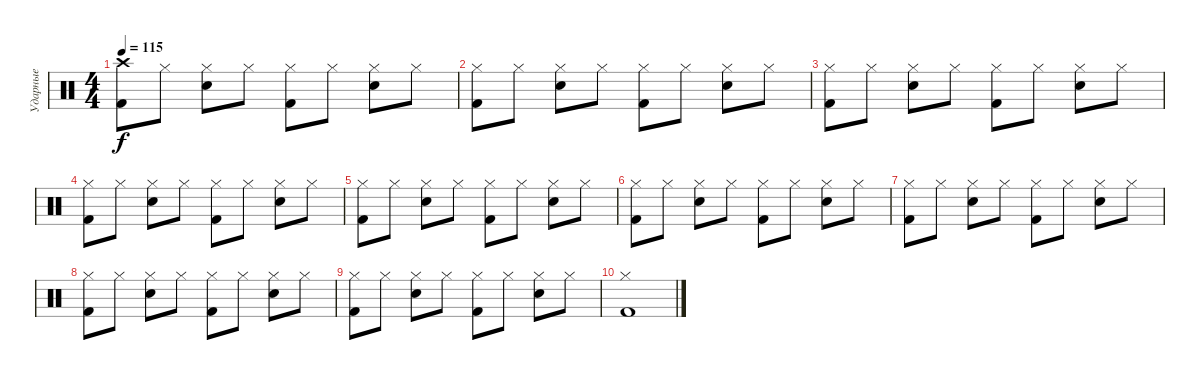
\track ("Ударные" "Ударные") {instrument percussion}
\staff {score}
\articulation defaults
\ts (4 4)
\tempo 115
\clef neutral
\ks c
("Crash high (hit)" "Kick (hit) 2").8{dy f} "Hi-Hat (closed)".8 ("Hi-Hat (closed)" "Snare (hit) 2").8 "Hi-Hat (closed)".8 ("Hi-Hat (closed)" "Kick (hit) 2").8 "Hi-Hat (closed)".8 ("Hi-Hat (closed)" "Snare (hit) 2").8 "Hi-Hat (closed)".8 |
("Hi-Hat (closed)" "Kick (hit) 2").8 "Hi-Hat (closed)".8 ("Hi-Hat (closed)" "Snare (hit) 2").8 "Hi-Hat (closed)".8 ("Hi-Hat (closed)" "Kick (hit) 2").8 "Hi-Hat (closed)".8 ("Hi-Hat (closed)" "Snare (hit) 2").8 "Hi-Hat (closed)".8 |
("Hi-Hat (closed)" "Kick (hit) 2").8 "Hi-Hat (closed)".8 ("Hi-Hat (closed)" "Snare (hit) 2").8 "Hi-Hat (closed)".8 ("Hi-Hat (closed)" "Kick (hit) 2").8 "Hi-Hat (closed)".8 ("Hi-Hat (closed)" "Snare (hit) 2").8 "Hi-Hat (closed)".8 |
("Hi-Hat (closed)" "Kick (hit) 2").8 "Hi-Hat (closed)".8 ("Hi-Hat (closed)" "Snare (hit) 2").8 "Hi-Hat (closed)".8 ("Hi-Hat (closed)" "Kick (hit) 2").8 "Hi-Hat (closed)".8 ("Hi-Hat (closed)" "Snare (hit) 2").8 "Hi-Hat (closed)".8 |
("Hi-Hat (closed)" "Kick (hit) 2").8 "Hi-Hat (closed)".8 ("Hi-Hat (closed)" "Snare (hit) 2").8 "Hi-Hat (closed)".8 ("Hi-Hat (closed)" "Kick (hit) 2").8 "Hi-Hat (closed)".8 ("Hi-Hat (closed)" "Snare (hit) 2").8 "Hi-Hat (closed)".8 |
("Hi-Hat (closed)" "Kick (hit) 2").8 "Hi-Hat (closed)".8 ("Hi-Hat (closed)" "Snare (hit) 2").8 "Hi-Hat (closed)".8 ("Hi-Hat (closed)" "Kick (hit) 2").8 "Hi-Hat (closed)".8 ("Hi-Hat (closed)" "Snare (hit) 2").8 "Hi-Hat (closed)".8 |
("Hi-Hat (closed)" "Kick (hit) 2").8 "Hi-Hat (closed)".8 ("Hi-Hat (closed)" "Snare (hit) 2").8 "Hi-Hat (closed)".8 ("Hi-Hat (closed)" "Kick (hit) 2").8 "Hi-Hat (closed)".8 ("Hi-Hat (closed)" "Snare (hit) 2").8 "Hi-Hat (closed)".8 |
("Hi-Hat (closed)" "Kick (hit) 2").8 "Hi-Hat (closed)".8 ("Hi-Hat (closed)" "Snare (hit) 2").8 "Hi-Hat (closed)".8 ("Hi-Hat (closed)" "Kick (hit) 2").8 "Hi-Hat (closed)".8 ("Hi-Hat (closed)" "Snare (hit) 2").8 "Hi-Hat (closed)".8 |
("Hi-Hat (closed)" "Kick (hit) 2").8 "Hi-Hat (closed)".8 ("Hi-Hat (closed)" "Snare (hit) 2").8 "Hi-Hat (closed)".8 ("Hi-Hat (closed)" "Kick (hit) 2").8 "Hi-Hat (closed)".8 ("Hi-Hat (closed)" "Snare (hit) 2").8 "Hi-Hat (closed)".8 |
("Hi-Hat (closed)" "Kick (hit) 2").1
